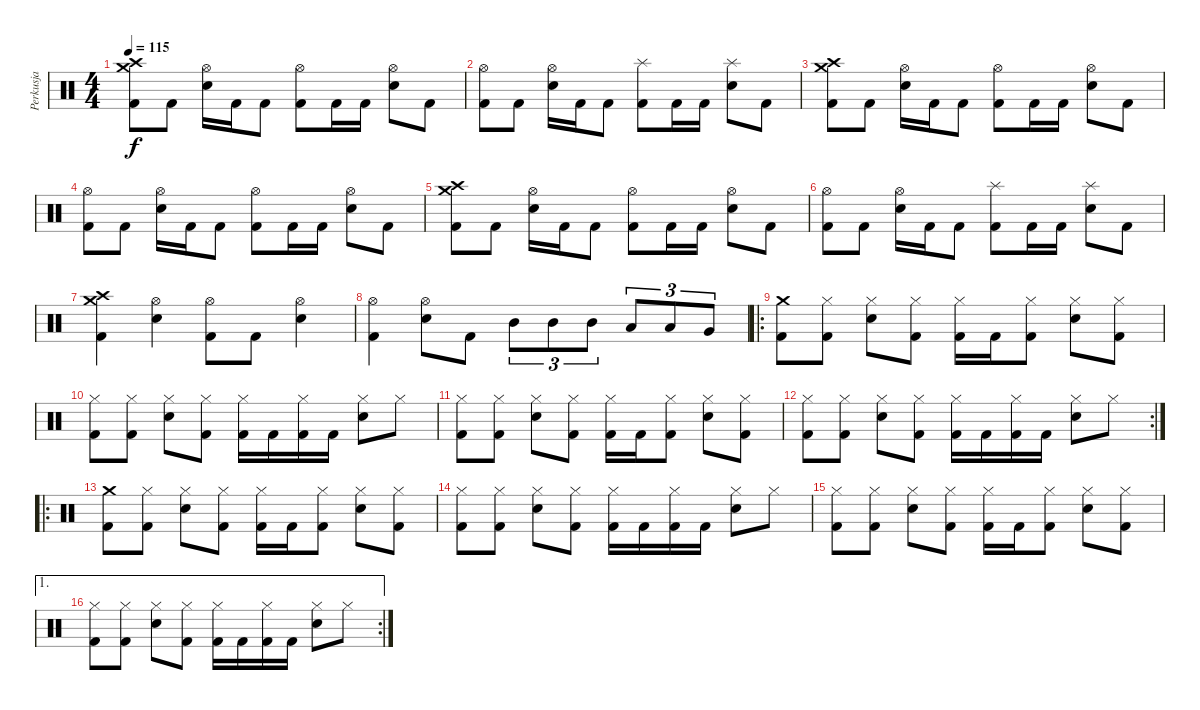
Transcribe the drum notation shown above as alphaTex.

\track ("Perkusja" "Perkusja") {instrument percussion}
\staff {score}
\articulation defaults
\ts (4 4)
\tempo 115
\clef neutral
\ks c
("Crash medium (hit)" "Crash high (hit)" "Kick (hit) 2").8{dy f} "Kick (hit) 2".8 ("Hi-Hat (open)" "Snare (hit) 2").16 "Kick (hit) 2".16 "Kick (hit) 2".8 ("Hi-Hat (open)" "Kick (hit) 2").8 "Kick (hit) 2".16 "Kick (hit) 2".16 ("Hi-Hat (open)" "Snare (hit) 2").8 "Kick (hit) 2".8 |
("Hi-Hat (open)" "Kick (hit) 2").8 "Kick (hit) 2".8 ("Hi-Hat (open)" "Snare (hit) 2").16 "Kick (hit) 2".16 "Kick (hit) 2".8 ("Splash (hit)" "Kick (hit) 2").8 "Kick (hit) 2".16 "Kick (hit) 2".16 ("Splash (hit)" "Snare (hit) 2").8 "Kick (hit) 2".8 |
("Crash medium (hit)" "Crash high (hit)" "Kick (hit) 2").8 "Kick (hit) 2".8 ("Hi-Hat (open)" "Snare (hit) 2").16 "Kick (hit) 2".16 "Kick (hit) 2".8 ("Hi-Hat (open)" "Kick (hit) 2").8 "Kick (hit) 2".16 "Kick (hit) 2".16 ("Hi-Hat (open)" "Snare (hit) 2").8 "Kick (hit) 2".8 |
("Hi-Hat (open)" "Kick (hit) 2").8 "Kick (hit) 2".8 ("Hi-Hat (open)" "Snare (hit) 2").16 "Kick (hit) 2".16 "Kick (hit) 2".8 ("Hi-Hat (open)" "Kick (hit) 2").8 "Kick (hit) 2".16 "Kick (hit) 2".16 ("Hi-Hat (open)" "Snare (hit) 2").8 "Kick (hit) 2".8 |
("Crash medium (hit)" "Crash high (hit)" "Kick (hit) 2").8 "Kick (hit) 2".8 ("Hi-Hat (open)" "Snare (hit) 2").16 "Kick (hit) 2".16 "Kick (hit) 2".8 ("Hi-Hat (open)" "Kick (hit) 2").8 "Kick (hit) 2".16 "Kick (hit) 2".16 ("Hi-Hat (open)" "Snare (hit) 2").8 "Kick (hit) 2".8 |
("Hi-Hat (open)" "Kick (hit) 2").8 "Kick (hit) 2".8 ("Hi-Hat (open)" "Snare (hit) 2").16 "Kick (hit) 2".16 "Kick (hit) 2".8 ("Splash (hit)" "Kick (hit) 2").8 "Kick (hit) 2".16 "Kick (hit) 2".16 ("Splash (hit)" "Snare (hit) 2").8 "Kick (hit) 2".8 |
("Crash medium (hit)" "Crash high (hit)" "Kick (hit) 2").4 ("Hi-Hat (open)" "Snare (hit) 2").4 ("Hi-Hat (open)" "Kick (hit) 2").8 "Kick (hit) 2".8 ("Hi-Hat (open)" "Snare (hit) 2").4 |
("Hi-Hat (open)" "Kick (hit) 2").4 ("Hi-Hat (open)" "Snare (hit) 2").8 "Kick (hit) 2".8 "Mid Tom (hit)".8{tu (3 2)} "Mid Tom (hit)".8{tu (3 2)} "Mid Tom (hit)".8{tu (3 2)} "Low Tom (hit)".8{tu (3 2)} "Low Tom (hit)".8{tu (3 2)} "Very Low Tom (hit)".8{tu (3 2)} |
\ro
("Crash medium (hit)" "Kick (hit) 2").8 ("Hi-Hat (closed)" "Kick (hit) 2").8 ("Hi-Hat (closed)" "Snare (hit) 2").8 ("Hi-Hat (closed)" "Kick (hit) 2").8 ("Hi-Hat (closed)" "Kick (hit) 2").16 "Kick (hit) 2".16 ("Hi-Hat (closed)" "Kick (hit) 2").8 ("Hi-Hat (closed)" "Snare (hit) 2").8 ("Hi-Hat (closed)" "Kick (hit) 2").8 |
("Hi-Hat (closed)" "Kick (hit) 2").8 ("Hi-Hat (closed)" "Kick (hit) 2").8 ("Hi-Hat (closed)" "Snare (hit) 2").8 ("Hi-Hat (closed)" "Kick (hit) 2").8 ("Hi-Hat (closed)" "Kick (hit) 2").16 "Kick (hit) 2".16 ("Hi-Hat (closed)" "Kick (hit) 2").16 "Kick (hit) 2".16 ("Hi-Hat (closed)" "Snare (hit) 2").8 "Hi-Hat (closed)".8 |
("Hi-Hat (closed)" "Kick (hit) 2").8 ("Hi-Hat (closed)" "Kick (hit) 2").8 ("Hi-Hat (closed)" "Snare (hit) 2").8 ("Hi-Hat (closed)" "Kick (hit) 2").8 ("Hi-Hat (closed)" "Kick (hit) 2").16 "Kick (hit) 2".16 ("Hi-Hat (closed)" "Kick (hit) 2").8 ("Hi-Hat (closed)" "Snare (hit) 2").8 ("Hi-Hat (closed)" "Kick (hit) 2").8 |
\rc 2
("Hi-Hat (closed)" "Kick (hit) 2").8 ("Hi-Hat (closed)" "Kick (hit) 2").8 ("Hi-Hat (closed)" "Snare (hit) 2").8 ("Hi-Hat (closed)" "Kick (hit) 2").8 ("Hi-Hat (closed)" "Kick (hit) 2").16 "Kick (hit) 2".16 ("Hi-Hat (closed)" "Kick (hit) 2").16 "Kick (hit) 2".16 ("Hi-Hat (closed)" "Snare (hit) 2").8 "Hi-Hat (closed)".8 |
\ro
("Crash medium (hit)" "Kick (hit) 2").8 ("Hi-Hat (closed)" "Kick (hit) 2").8 ("Hi-Hat (closed)" "Snare (hit) 2").8 ("Hi-Hat (closed)" "Kick (hit) 2").8 ("Hi-Hat (closed)" "Kick (hit) 2").16 "Kick (hit) 2".16 ("Hi-Hat (closed)" "Kick (hit) 2").8 ("Hi-Hat (closed)" "Snare (hit) 2").8 ("Hi-Hat (closed)" "Kick (hit) 2").8 |
("Hi-Hat (closed)" "Kick (hit) 2").8 ("Hi-Hat (closed)" "Kick (hit) 2").8 ("Hi-Hat (closed)" "Snare (hit) 2").8 ("Hi-Hat (closed)" "Kick (hit) 2").8 ("Hi-Hat (closed)" "Kick (hit) 2").16 "Kick (hit) 2".16 ("Hi-Hat (closed)" "Kick (hit) 2").16 "Kick (hit) 2".16 ("Hi-Hat (closed)" "Snare (hit) 2").8 "Hi-Hat (closed)".8 |
("Hi-Hat (closed)" "Kick (hit) 2").8 ("Hi-Hat (closed)" "Kick (hit) 2").8 ("Hi-Hat (closed)" "Snare (hit) 2").8 ("Hi-Hat (closed)" "Kick (hit) 2").8 ("Hi-Hat (closed)" "Kick (hit) 2").16 "Kick (hit) 2".16 ("Hi-Hat (closed)" "Kick (hit) 2").8 ("Hi-Hat (closed)" "Snare (hit) 2").8 ("Hi-Hat (closed)" "Kick (hit) 2").8 |
\ae 1
\rc 2
("Hi-Hat (closed)" "Kick (hit) 2").8 ("Hi-Hat (closed)" "Kick (hit) 2").8 ("Hi-Hat (closed)" "Snare (hit) 2").8 ("Hi-Hat (closed)" "Kick (hit) 2").8 ("Hi-Hat (closed)" "Kick (hit) 2").16 "Kick (hit) 2".16 ("Hi-Hat (closed)" "Kick (hit) 2").16 "Kick (hit) 2".16 ("Hi-Hat (closed)" "Snare (hit) 2").8 "Hi-Hat (closed)".8
